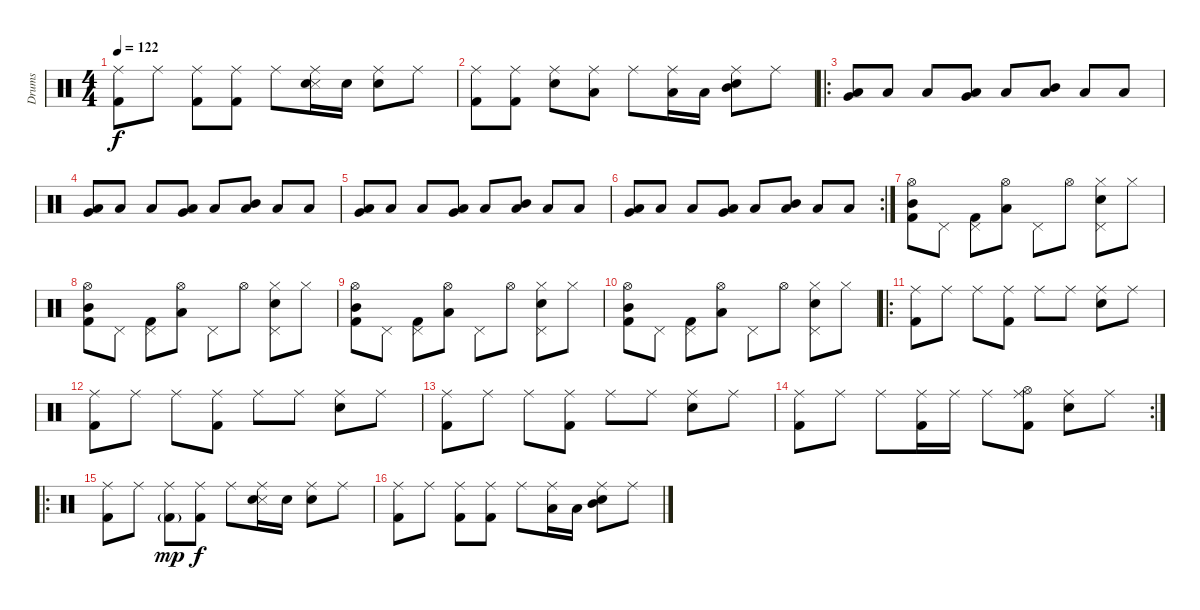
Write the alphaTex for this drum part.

\track ("Drums" "Drums") {instrument percussion}
\staff {score}
\articulation defaults
\ts (4 4)
\tempo 122
\clef neutral
\ks c
("Ride (middle)" "Kick (hit) 2").8{dy f} "Ride (middle)".8 ("Ride (middle)" "Kick (hit) 2").8 ("Ride (middle)" "Kick (hit) 2").8 "Ride (middle)".8 ("Ride (middle)" "Snare (side stick) 3" "Snare (hit) 2").16 "Snare (hit) 2".16 ("Ride (middle)" "Snare (hit) 2").8 "Ride (middle)".8 |
("Ride (middle)" "Kick (hit) 2").8 ("Ride (middle)" "Kick (hit) 2").8 ("Ride (middle)" "Snare (hit) 2").8 ("Ride (middle)" "Low Tom (hit)").8 "Ride (middle)".8 ("Ride (middle)" "Low Tom (hit)").16 "Low Tom (hit)".16 ("Ride (middle)" "Mid Tom (hit)" "Snare (hit) 2").8 "Ride (middle)".8 |
\ro
("Very Low Tom (hit)" "Low Floor Tom (hit)").8 "Low Floor Tom (hit)".8 "Low Floor Tom (hit)".8 ("Very Low Tom (hit)" "Low Floor Tom (hit)").8 "Low Floor Tom (hit)".8 ("Mid Tom (hit)" "Low Floor Tom (hit)").8 "Low Floor Tom (hit)".8 "Low Floor Tom (hit)".8 |
("Very Low Tom (hit)" "Low Floor Tom (hit)").8 "Low Floor Tom (hit)".8 "Low Floor Tom (hit)".8 ("Very Low Tom (hit)" "Low Floor Tom (hit)").8 "Low Floor Tom (hit)".8 ("Mid Tom (hit)" "Low Floor Tom (hit)").8 "Low Floor Tom (hit)".8 "Low Floor Tom (hit)".8 |
("Very Low Tom (hit)" "Low Floor Tom (hit)").8 "Low Floor Tom (hit)".8 "Low Floor Tom (hit)".8 ("Very Low Tom (hit)" "Low Floor Tom (hit)").8 "Low Floor Tom (hit)".8 ("Mid Tom (hit)" "Low Floor Tom (hit)").8 "Low Floor Tom (hit)".8 "Low Floor Tom (hit)".8 |
\rc 2
("Very Low Tom (hit)" "Low Floor Tom (hit)").8 "Low Floor Tom (hit)".8 "Low Floor Tom (hit)".8 ("Very Low Tom (hit)" "Low Floor Tom (hit)").8 "Low Floor Tom (hit)".8 ("Mid Tom (hit)" "Low Floor Tom (hit)").8 "Low Floor Tom (hit)".8 "Low Floor Tom (hit)".8 |
("Hi-Hat (open)" "Mid Tom (hit)" "Kick (hit) 2").8 "Pedal Hi-Hat (hit)".8 ("Pedal Hi-Hat (hit)" "Kick (hit) 2").8 ("Hi-Hat (open)" "Low Tom (hit)").8 "Pedal Hi-Hat (hit)".8 "Hi-Hat (open)".8 ("Hi-Hat (closed)" "Pedal Hi-Hat (hit)" "Snare (hit) 2").8 "Hi-Hat (closed)".8 |
("Hi-Hat (open)" "Mid Tom (hit)" "Kick (hit) 2").8 "Pedal Hi-Hat (hit)".8 ("Pedal Hi-Hat (hit)" "Kick (hit) 2").8 ("Hi-Hat (open)" "Low Tom (hit)").8 "Pedal Hi-Hat (hit)".8 "Hi-Hat (open)".8 ("Hi-Hat (closed)" "Pedal Hi-Hat (hit)" "Snare (hit) 2").8 "Hi-Hat (closed)".8 |
("Hi-Hat (open)" "Mid Tom (hit)" "Kick (hit) 2").8 "Pedal Hi-Hat (hit)".8 ("Pedal Hi-Hat (hit)" "Kick (hit) 2").8 ("Hi-Hat (open)" "Low Tom (hit)").8 "Pedal Hi-Hat (hit)".8 "Hi-Hat (open)".8 ("Hi-Hat (closed)" "Pedal Hi-Hat (hit)" "Snare (hit) 2").8 "Hi-Hat (closed)".8 |
("Hi-Hat (open)" "Mid Tom (hit)" "Kick (hit) 2").8 "Pedal Hi-Hat (hit)".8 ("Pedal Hi-Hat (hit)" "Kick (hit) 2").8 ("Hi-Hat (open)" "Low Tom (hit)").8 "Pedal Hi-Hat (hit)".8 "Hi-Hat (open)".8 ("Hi-Hat (closed)" "Pedal Hi-Hat (hit)" "Snare (hit) 2").8 "Hi-Hat (closed)".8 |
\ro
("Ride (middle)" "Kick (hit) 2").8 "Ride (middle)".8 "Ride (middle)".8 ("Ride (middle)" "Kick (hit) 2").8 "Ride (middle)".8 "Ride (middle)".8 ("Ride (middle)" "Snare (hit) 2").8 "Ride (middle)".8 |
("Ride (middle)" "Kick (hit) 2").8 "Ride (middle)".8 "Ride (middle)".8 ("Ride (middle)" "Kick (hit) 2").8 "Ride (middle)".8 "Ride (middle)".8 ("Ride (middle)" "Snare (hit) 2").8 "Ride (middle)".8 |
("Ride (middle)" "Kick (hit) 2").8 "Ride (middle)".8 "Ride (middle)".8 ("Ride (middle)" "Kick (hit) 2").8 "Ride (middle)".8 "Ride (middle)".8 ("Ride (middle)" "Snare (hit) 2").8 "Ride (middle)".8 |
\rc 2
("Ride (middle)" "Kick (hit) 2").8 "Ride (middle)".8 "Ride (middle)".8 ("Ride (middle)" "Kick (hit) 2").16 "Ride (middle)".16 "Ride (middle)".8 ("Ride (middle)" "Hi-Hat (open)" "Kick (hit) 2").8 ("Ride (middle)" "Snare (hit) 2").8 "Ride (middle)".8 |
\ro
("Ride (middle)" "Kick (hit) 2").8 "Ride (middle)".8 ("Ride (middle)" "Kick (hit) 2"{g}).8{dy mp} ("Ride (middle)" "Kick (hit) 2").8{dy f} "Ride (middle)".8 ("Ride (middle)" "Snare (side stick) 3" "Snare (hit) 2").16 "Snare (hit) 2".16 ("Ride (middle)" "Snare (hit) 2").8 "Ride (middle)".8 |
("Ride (middle)" "Kick (hit) 2").8 "Ride (middle)".8 ("Ride (middle)" "Kick (hit) 2").8 ("Ride (middle)" "Kick (hit) 2").8 "Ride (middle)".8 ("Ride (middle)" "Low Tom (hit)").16 "Low Tom (hit)".16 ("Ride (middle)" "Mid Tom (hit)" "Snare (hit) 2").8 "Ride (middle)".8
